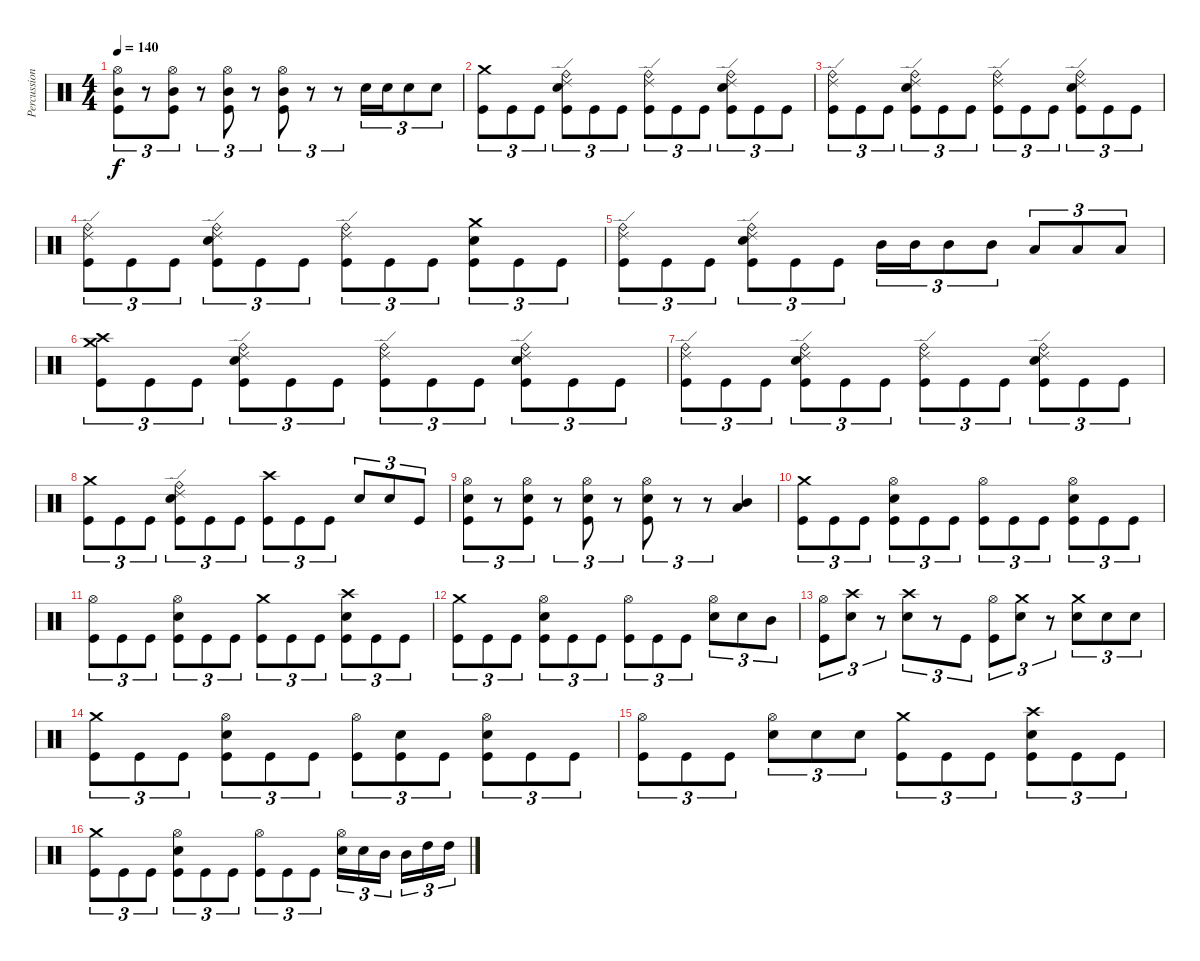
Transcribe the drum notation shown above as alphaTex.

\track ("Percussion" "Percussion") {instrument percussion}
\staff {score}
\articulation defaults
\ts (4 4)
\tempo 140
\clef neutral
\ks c
("Hi-Hat (open)" "Mid Tom (hit)" "Kick (hit)").8{tu (3 2) dy f} r.8{tu (3 2)} ("Hi-Hat (open)" "Mid Tom (hit)" "Kick (hit)").8{tu (3 2)} r.8{tu (3 2)} ("Hi-Hat (open)" "Mid Tom (hit)" "Kick (hit)").8{tu (3 2)} r.8{tu (3 2)} ("Hi-Hat (open)" "Mid Tom (hit)" "Kick (hit)").8{tu (3 2)} r.8{tu (3 2)} r.8{tu (3 2)} "Snare (hit) 2".16{tu (3 2)} "Snare (hit) 2".16{tu (3 2)} "Snare (hit) 2".8{tu (3 2)} "Snare (hit) 2".8{tu (3 2)} |
("Crash medium (hit)" "Kick (hit)").8{tu (3 2)} "Kick (hit)".8{tu (3 2)} "Kick (hit)".8{tu (3 2)} ("Ride (edge) 2" "Ride (bell)" "Snare (hit) 2" "Kick (hit)").8{tu (3 2)} "Kick (hit)".8{tu (3 2)} "Kick (hit)".8{tu (3 2)} ("Ride (edge) 2" "Ride (bell)" "Kick (hit)").8{tu (3 2)} "Kick (hit)".8{tu (3 2)} "Kick (hit)".8{tu (3 2)} ("Ride (edge) 2" "Ride (bell)" "Snare (hit) 2" "Kick (hit)").8{tu (3 2)} "Kick (hit)".8{tu (3 2)} "Kick (hit)".8{tu (3 2)} |
("Ride (edge) 2" "Ride (bell)" "Kick (hit)").8{tu (3 2)} "Kick (hit)".8{tu (3 2)} "Kick (hit)".8{tu (3 2)} ("Ride (edge) 2" "Ride (bell)" "Snare (hit) 2" "Kick (hit)").8{tu (3 2)} "Kick (hit)".8{tu (3 2)} "Kick (hit)".8{tu (3 2)} ("Ride (edge) 2" "Ride (bell)" "Kick (hit)").8{tu (3 2)} "Kick (hit)".8{tu (3 2)} "Kick (hit)".8{tu (3 2)} ("Ride (edge) 2" "Ride (bell)" "Snare (hit) 2" "Kick (hit)").8{tu (3 2)} "Kick (hit)".8{tu (3 2)} "Kick (hit)".8{tu (3 2)} |
("Ride (edge) 2" "Ride (bell)" "Kick (hit)").8{tu (3 2)} "Kick (hit)".8{tu (3 2)} "Kick (hit)".8{tu (3 2)} ("Ride (edge) 2" "Ride (bell)" "Snare (hit) 2" "Kick (hit)").8{tu (3 2)} "Kick (hit)".8{tu (3 2)} "Kick (hit)".8{tu (3 2)} ("Ride (edge) 2" "Ride (bell)" "Kick (hit)").8{tu (3 2)} "Kick (hit)".8{tu (3 2)} "Kick (hit)".8{tu (3 2)} ("Crash medium (hit)" "Snare (hit) 2" "Kick (hit)").8{tu (3 2)} "Kick (hit)".8{tu (3 2)} "Kick (hit)".8{tu (3 2)} |
("Ride (edge) 2" "Ride (bell)" "Kick (hit)").8{tu (3 2)} "Kick (hit)".8{tu (3 2)} "Kick (hit)".8{tu (3 2)} ("Ride (edge) 2" "Ride (bell)" "Snare (hit) 2" "Kick (hit)").8{tu (3 2)} "Kick (hit)".8{tu (3 2)} "Kick (hit)".8{tu (3 2)} "Mid Tom (hit)".16{tu (3 2)} "Mid Tom (hit)".16{tu (3 2)} "Mid Tom (hit)".8{tu (3 2)} "Mid Tom (hit)".8{tu (3 2)} "Low Tom (hit)".8{tu (3 2)} "Low Tom (hit)".8{tu (3 2)} "Low Tom (hit)".8{tu (3 2)} |
("Crash medium (hit)" "Crash high (hit)" "Kick (hit)").8{tu (3 2)} "Kick (hit)".8{tu (3 2)} "Kick (hit)".8{tu (3 2)} ("Ride (edge) 2" "Ride (bell)" "Snare (hit) 2" "Kick (hit)").8{tu (3 2)} "Kick (hit)".8{tu (3 2)} "Kick (hit)".8{tu (3 2)} ("Ride (edge) 2" "Ride (bell)" "Kick (hit)").8{tu (3 2)} "Kick (hit)".8{tu (3 2)} "Kick (hit)".8{tu (3 2)} ("Ride (edge) 2" "Ride (bell)" "Snare (hit) 2" "Kick (hit)").8{tu (3 2)} "Kick (hit)".8{tu (3 2)} "Kick (hit)".8{tu (3 2)} |
("Ride (edge) 2" "Ride (bell)" "Kick (hit)").8{tu (3 2)} "Kick (hit)".8{tu (3 2)} "Kick (hit)".8{tu (3 2)} ("Ride (edge) 2" "Ride (bell)" "Snare (hit) 2" "Kick (hit)").8{tu (3 2)} "Kick (hit)".8{tu (3 2)} "Kick (hit)".8{tu (3 2)} ("Ride (edge) 2" "Ride (bell)" "Kick (hit)").8{tu (3 2)} "Kick (hit)".8{tu (3 2)} "Kick (hit)".8{tu (3 2)} ("Ride (edge) 2" "Ride (bell)" "Snare (hit) 2" "Kick (hit)").8{tu (3 2)} "Kick (hit)".8{tu (3 2)} "Kick (hit)".8{tu (3 2)} |
("Crash medium (hit)" "Kick (hit)").8{tu (3 2)} "Kick (hit)".8{tu (3 2)} "Kick (hit)".8{tu (3 2)} ("Ride (edge) 2" "Ride (bell)" "Snare (hit) 2" "Kick (hit)").8{tu (3 2)} "Kick (hit)".8{tu (3 2)} "Kick (hit)".8{tu (3 2)} ("Crash high (hit)" "Kick (hit)").8{tu (3 2)} "Kick (hit)".8{tu (3 2)} "Kick (hit)".8{tu (3 2)} "Snare (hit) 2".8{tu (3 2)} "Snare (hit) 2".8{tu (3 2)} "Kick (hit)".8{tu (3 2)} |
("Hi-Hat (open)" "Snare (hit) 2" "Kick (hit)").8{tu (3 2)} r.8{tu (3 2)} ("Hi-Hat (open)" "Snare (hit) 2" "Kick (hit)").8{tu (3 2)} r.8{tu (3 2)} ("Hi-Hat (open)" "Snare (hit) 2" "Kick (hit)").8{tu (3 2)} r.8{tu (3 2)} ("Hi-Hat (open)" "Snare (hit) 2" "Kick (hit)").8{tu (3 2)} r.8{tu (3 2)} r.8{tu (3 2)} ("Low Tom (hit)" "Mid Tom (hit)").4 |
("Crash medium (hit)" "Kick (hit)").8{tu (3 2)} "Kick (hit)".8{tu (3 2)} "Kick (hit)".8{tu (3 2)} ("Hi-Hat (open)" "Snare (hit) 2" "Kick (hit)").8{tu (3 2)} "Kick (hit)".8{tu (3 2)} "Kick (hit)".8{tu (3 2)} ("Hi-Hat (open)" "Kick (hit)").8{tu (3 2)} "Kick (hit)".8{tu (3 2)} "Kick (hit)".8{tu (3 2)} ("Hi-Hat (open)" "Snare (hit) 2" "Kick (hit)").8{tu (3 2)} "Kick (hit)".8{tu (3 2)} "Kick (hit)".8{tu (3 2)} |
("Hi-Hat (open)" "Kick (hit)").8{tu (3 2)} "Kick (hit)".8{tu (3 2)} "Kick (hit)".8{tu (3 2)} ("Hi-Hat (open)" "Snare (hit) 2" "Kick (hit)").8{tu (3 2)} "Kick (hit)".8{tu (3 2)} "Kick (hit)".8{tu (3 2)} ("Crash medium (hit)" "Kick (hit)").8{tu (3 2)} "Kick (hit)".8{tu (3 2)} "Kick (hit)".8{tu (3 2)} ("Crash high (hit)" "Snare (hit) 2" "Kick (hit)").8{tu (3 2)} "Kick (hit)".8{tu (3 2)} "Kick (hit)".8{tu (3 2)} |
("Crash medium (hit)" "Kick (hit)").8{tu (3 2)} "Kick (hit)".8{tu (3 2)} "Kick (hit)".8{tu (3 2)} ("Hi-Hat (open)" "Snare (hit) 2" "Kick (hit)").8{tu (3 2)} "Kick (hit)".8{tu (3 2)} "Kick (hit)".8{tu (3 2)} ("Hi-Hat (open)" "Kick (hit)").8{tu (3 2)} "Kick (hit)".8{tu (3 2)} "Kick (hit)".8{tu (3 2)} ("Hi-Hat (open)" "Snare (hit) 2").8{tu (3 2)} "Snare (hit) 2".8{tu (3 2)} "Mid Tom (hit)".8{tu (3 2)} |
("Hi-Hat (open)" "Kick (hit)").8{tu (3 2)} ("Crash high (hit)" "Snare (hit) 2").8{tu (3 2)} r.8{tu (3 2)} ("Crash high (hit)" "Snare (hit) 2").8{tu (3 2)} r.8{tu (3 2)} "Kick (hit)".8{tu (3 2)} ("Hi-Hat (open)" "Kick (hit)").8{tu (3 2)} ("Crash medium (hit)" "Snare (hit) 2").8{tu (3 2)} r.8{tu (3 2)} ("Crash medium (hit)" "Snare (hit) 2").8{tu (3 2)} "Snare (hit) 2".8{tu (3 2)} "Snare (hit) 2".8{tu (3 2)} |
("Crash medium (hit)" "Kick (hit)").8{tu (3 2)} "Kick (hit)".8{tu (3 2)} "Kick (hit)".8{tu (3 2)} ("Hi-Hat (open)" "Snare (hit) 2" "Kick (hit)").8{tu (3 2)} "Kick (hit)".8{tu (3 2)} "Kick (hit)".8{tu (3 2)} ("Hi-Hat (open)" "Kick (hit)").8{tu (3 2)} ("Snare (hit) 2" "Kick (hit)").8{tu (3 2)} "Kick (hit)".8{tu (3 2)} ("Hi-Hat (open)" "Snare (hit) 2" "Kick (hit)").8{tu (3 2)} "Kick (hit)".8{tu (3 2)} "Kick (hit)".8{tu (3 2)} |
("Hi-Hat (open)" "Kick (hit)").8{tu (3 2)} "Kick (hit)".8{tu (3 2)} "Kick (hit)".8{tu (3 2)} ("Hi-Hat (open)" "Snare (hit) 2").8{tu (3 2)} "Snare (hit) 2".8{tu (3 2)} "Snare (hit) 2".8{tu (3 2)} ("Crash medium (hit)" "Kick (hit)").8{tu (3 2)} "Kick (hit)".8{tu (3 2)} "Kick (hit)".8{tu (3 2)} ("Crash high (hit)" "Snare (hit) 2" "Kick (hit)").8{tu (3 2)} "Kick (hit)".8{tu (3 2)} "Kick (hit)".8{tu (3 2)} |
("Crash medium (hit)" "Kick (hit)").8{tu (3 2)} "Kick (hit)".8{tu (3 2)} "Kick (hit)".8{tu (3 2)} ("Hi-Hat (open)" "Snare (hit) 2" "Kick (hit)").8{tu (3 2)} "Kick (hit)".8{tu (3 2)} "Kick (hit)".8{tu (3 2)} ("Hi-Hat (open)" "Kick (hit)").8{tu (3 2)} "Kick (hit)".8{tu (3 2)} "Kick (hit)".8{tu (3 2)} ("Hi-Hat (open)" "Snare (hit) 2").16{tu (3 2)} "Snare (hit) 2".16{tu (3 2)} "Mid Tom (hit)".16{tu (3 2)} "Mid Tom (hit)".16{tu (3 2)} "High Tom (hit)".16{tu (3 2)} "High Tom (hit)".16{tu (3 2)}
